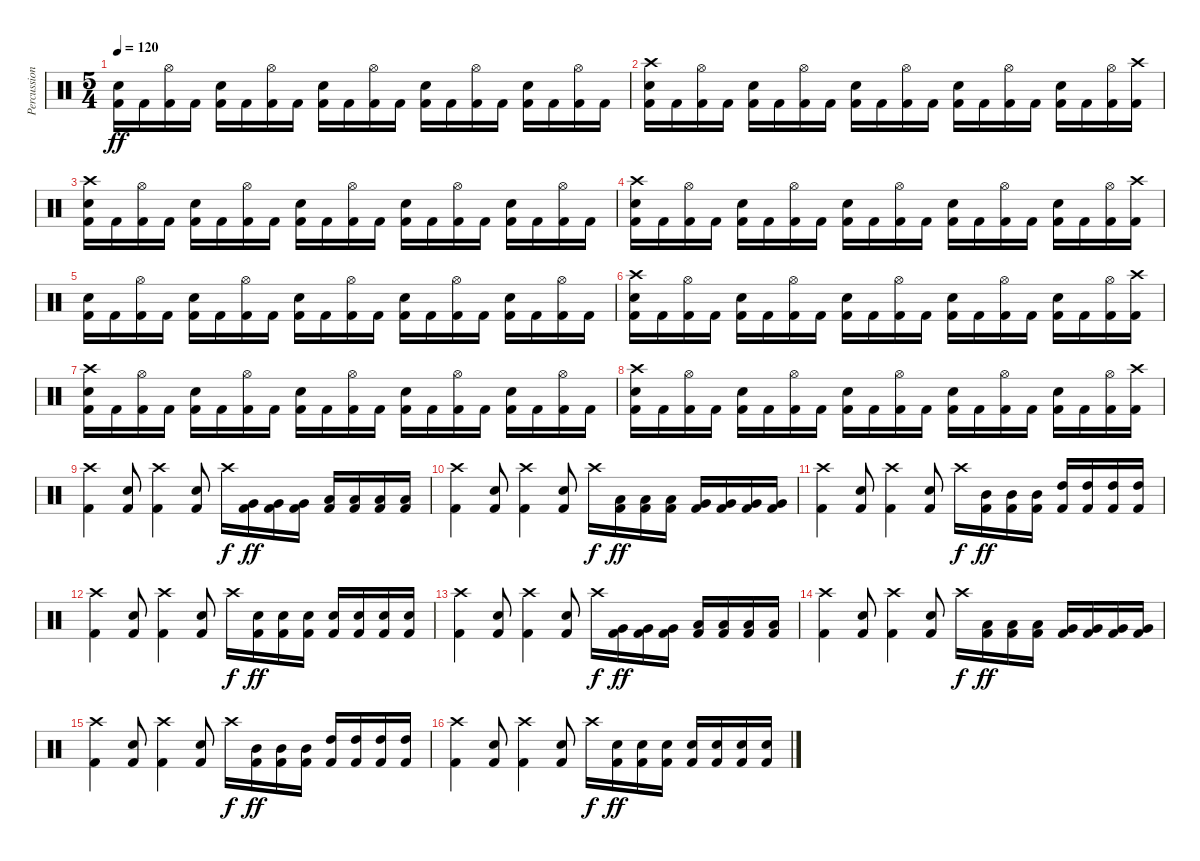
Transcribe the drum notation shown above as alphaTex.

\track ("Percussioni" "Percussion") {instrument percussion}
\staff {score}
\articulation defaults
\ts (5 4)
\tempo 120
\clef neutral
\ks c
("Kick (hit) 2" "Electric Snare (hit)").16{dy ff} "Kick (hit) 2".16 ("Kick (hit) 2" "Hi-Hat (open)").16 "Kick (hit) 2".16 ("Kick (hit) 2" "Electric Snare (hit)").16 "Kick (hit) 2".16 ("Kick (hit) 2" "Hi-Hat (open)").16 "Kick (hit) 2".16 ("Kick (hit) 2" "Electric Snare (hit)").16 "Kick (hit) 2".16 ("Kick (hit) 2" "Hi-Hat (open)").16 "Kick (hit) 2".16 ("Kick (hit) 2" "Electric Snare (hit)").16 "Kick (hit) 2".16 ("Kick (hit) 2" "Hi-Hat (open)").16 "Kick (hit) 2".16 ("Kick (hit) 2" "Electric Snare (hit)").16 "Kick (hit) 2".16 ("Kick (hit) 2" "Hi-Hat (open)").16 "Kick (hit) 2".16 |
("Kick (hit) 2" "Crash high (hit)" "Electric Snare (hit)").16 "Kick (hit) 2".16 ("Kick (hit) 2" "Hi-Hat (open)").16 "Kick (hit) 2".16 ("Kick (hit) 2" "Electric Snare (hit)").16 "Kick (hit) 2".16 ("Kick (hit) 2" "Hi-Hat (open)").16 "Kick (hit) 2".16 ("Kick (hit) 2" "Electric Snare (hit)").16 "Kick (hit) 2".16 ("Kick (hit) 2" "Hi-Hat (open)").16 "Kick (hit) 2".16 ("Kick (hit) 2" "Electric Snare (hit)").16 "Kick (hit) 2".16 ("Kick (hit) 2" "Hi-Hat (open)").16 "Kick (hit) 2".16 ("Kick (hit) 2" "Electric Snare (hit)").16 "Kick (hit) 2".16 ("Kick (hit) 2" "Hi-Hat (open)").16 ("Kick (hit) 2" "Crash high (hit)").16 |
("Kick (hit) 2" "Crash high (hit)" "Electric Snare (hit)").16 "Kick (hit) 2".16 ("Kick (hit) 2" "Hi-Hat (open)").16 "Kick (hit) 2".16 ("Kick (hit) 2" "Electric Snare (hit)").16 "Kick (hit) 2".16 ("Kick (hit) 2" "Hi-Hat (open)").16 "Kick (hit) 2".16 ("Kick (hit) 2" "Electric Snare (hit)").16 "Kick (hit) 2".16 ("Kick (hit) 2" "Hi-Hat (open)").16 "Kick (hit) 2".16 ("Kick (hit) 2" "Electric Snare (hit)").16 "Kick (hit) 2".16 ("Kick (hit) 2" "Hi-Hat (open)").16 "Kick (hit) 2".16 ("Kick (hit) 2" "Electric Snare (hit)").16 "Kick (hit) 2".16 ("Kick (hit) 2" "Hi-Hat (open)").16 "Kick (hit) 2".16 |
("Kick (hit) 2" "Crash high (hit)" "Electric Snare (hit)").16 "Kick (hit) 2".16 ("Kick (hit) 2" "Hi-Hat (open)").16 "Kick (hit) 2".16 ("Kick (hit) 2" "Electric Snare (hit)").16 "Kick (hit) 2".16 ("Kick (hit) 2" "Hi-Hat (open)").16 "Kick (hit) 2".16 ("Kick (hit) 2" "Electric Snare (hit)").16 "Kick (hit) 2".16 ("Kick (hit) 2" "Hi-Hat (open)").16 "Kick (hit) 2".16 ("Kick (hit) 2" "Electric Snare (hit)").16 "Kick (hit) 2".16 ("Kick (hit) 2" "Hi-Hat (open)").16 "Kick (hit) 2".16 ("Kick (hit) 2" "Electric Snare (hit)").16 "Kick (hit) 2".16 ("Kick (hit) 2" "Hi-Hat (open)").16 ("Kick (hit) 2" "Crash high (hit)").16 |
("Kick (hit) 2" "Electric Snare (hit)").16 "Kick (hit) 2".16 ("Kick (hit) 2" "Hi-Hat (open)").16 "Kick (hit) 2".16 ("Kick (hit) 2" "Electric Snare (hit)").16 "Kick (hit) 2".16 ("Kick (hit) 2" "Hi-Hat (open)").16 "Kick (hit) 2".16 ("Kick (hit) 2" "Electric Snare (hit)").16 "Kick (hit) 2".16 ("Kick (hit) 2" "Hi-Hat (open)").16 "Kick (hit) 2".16 ("Kick (hit) 2" "Electric Snare (hit)").16 "Kick (hit) 2".16 ("Kick (hit) 2" "Hi-Hat (open)").16 "Kick (hit) 2".16 ("Kick (hit) 2" "Electric Snare (hit)").16 "Kick (hit) 2".16 ("Kick (hit) 2" "Hi-Hat (open)").16 "Kick (hit) 2".16 |
("Kick (hit) 2" "Crash high (hit)" "Electric Snare (hit)").16 "Kick (hit) 2".16 ("Kick (hit) 2" "Hi-Hat (open)").16 "Kick (hit) 2".16 ("Kick (hit) 2" "Electric Snare (hit)").16 "Kick (hit) 2".16 ("Kick (hit) 2" "Hi-Hat (open)").16 "Kick (hit) 2".16 ("Kick (hit) 2" "Electric Snare (hit)").16 "Kick (hit) 2".16 ("Kick (hit) 2" "Hi-Hat (open)").16 "Kick (hit) 2".16 ("Kick (hit) 2" "Electric Snare (hit)").16 "Kick (hit) 2".16 ("Kick (hit) 2" "Hi-Hat (open)").16 "Kick (hit) 2".16 ("Kick (hit) 2" "Electric Snare (hit)").16 "Kick (hit) 2".16 ("Kick (hit) 2" "Hi-Hat (open)").16 ("Kick (hit) 2" "Crash high (hit)").16 |
("Kick (hit) 2" "Crash high (hit)" "Electric Snare (hit)").16 "Kick (hit) 2".16 ("Kick (hit) 2" "Hi-Hat (open)").16 "Kick (hit) 2".16 ("Kick (hit) 2" "Electric Snare (hit)").16 "Kick (hit) 2".16 ("Kick (hit) 2" "Hi-Hat (open)").16 "Kick (hit) 2".16 ("Kick (hit) 2" "Electric Snare (hit)").16 "Kick (hit) 2".16 ("Kick (hit) 2" "Hi-Hat (open)").16 "Kick (hit) 2".16 ("Kick (hit) 2" "Electric Snare (hit)").16 "Kick (hit) 2".16 ("Kick (hit) 2" "Hi-Hat (open)").16 "Kick (hit) 2".16 ("Kick (hit) 2" "Electric Snare (hit)").16 "Kick (hit) 2".16 ("Kick (hit) 2" "Hi-Hat (open)").16 "Kick (hit) 2".16 |
("Kick (hit) 2" "Crash high (hit)" "Electric Snare (hit)").16 "Kick (hit) 2".16 ("Kick (hit) 2" "Hi-Hat (open)").16 "Kick (hit) 2".16 ("Kick (hit) 2" "Electric Snare (hit)").16 "Kick (hit) 2".16 ("Kick (hit) 2" "Hi-Hat (open)").16 "Kick (hit) 2".16 ("Kick (hit) 2" "Electric Snare (hit)").16 "Kick (hit) 2".16 ("Kick (hit) 2" "Hi-Hat (open)").16 "Kick (hit) 2".16 ("Kick (hit) 2" "Electric Snare (hit)").16 "Kick (hit) 2".16 ("Kick (hit) 2" "Hi-Hat (open)").16 "Kick (hit) 2".16 ("Kick (hit) 2" "Electric Snare (hit)").16 "Kick (hit) 2".16 ("Kick (hit) 2" "Hi-Hat (open)").16 ("Kick (hit) 2" "Crash high (hit)").16 |
("Kick (hit) 2" "Crash high (hit)").4 ("Kick (hit) 2" "Electric Snare (hit)").8 ("Kick (hit) 2" "Crash high (hit)").4 ("Kick (hit) 2" "Electric Snare (hit)").8 "Crash high (hit)".16{dy f} ("Kick (hit) 2" "Very Low Tom (hit)").16{dy ff} ("Kick (hit) 2" "Very Low Tom (hit)").16 ("Kick (hit) 2" "Very Low Tom (hit)").16 ("Kick (hit) 2" "Low Tom (hit)").16 ("Kick (hit) 2" "Low Tom (hit)").16 ("Kick (hit) 2" "Low Tom (hit)").16 ("Kick (hit) 2" "Low Tom (hit)").16 |
("Kick (hit) 2" "Crash high (hit)").4 ("Kick (hit) 2" "Electric Snare (hit)").8 ("Kick (hit) 2" "Crash high (hit)").4 ("Kick (hit) 2" "Electric Snare (hit)").8 "Crash high (hit)".16{dy f} ("Kick (hit) 2" "Low Floor Tom (hit)").16{dy ff} ("Kick (hit) 2" "Low Floor Tom (hit)").16 ("Kick (hit) 2" "Low Floor Tom (hit)").16 ("Kick (hit) 2" "Very Low Tom (hit)").16 ("Kick (hit) 2" "Very Low Tom (hit)").16 ("Kick (hit) 2" "Very Low Tom (hit)").16 ("Kick (hit) 2" "Very Low Tom (hit)").16 |
("Kick (hit) 2" "Crash high (hit)").4 ("Kick (hit) 2" "Electric Snare (hit)").8 ("Kick (hit) 2" "Crash high (hit)").4 ("Kick (hit) 2" "Electric Snare (hit)").8 "Crash high (hit)".16{dy f} ("Kick (hit) 2" "Mid Tom (hit)").16{dy ff} ("Kick (hit) 2" "Mid Tom (hit)").16 ("Kick (hit) 2" "Mid Tom (hit)").16 ("Kick (hit) 2" "High Tom (hit)").16 ("Kick (hit) 2" "High Tom (hit)").16 ("Kick (hit) 2" "High Tom (hit)").16 ("Kick (hit) 2" "High Tom (hit)").16 |
("Kick (hit) 2" "Crash high (hit)").4 ("Kick (hit) 2" "Electric Snare (hit)").8 ("Kick (hit) 2" "Crash high (hit)").4 ("Kick (hit) 2" "Electric Snare (hit)").8 "Crash high (hit)".16{dy f} ("Kick (hit) 2" "Electric Snare (hit)").16{dy ff} ("Kick (hit) 2" "Electric Snare (hit)").16 ("Kick (hit) 2" "Electric Snare (hit)").16 ("Kick (hit) 2" "Electric Snare (hit)").16 ("Kick (hit) 2" "Electric Snare (hit)").16 ("Kick (hit) 2" "Electric Snare (hit)").16 ("Kick (hit) 2" "Electric Snare (hit)").16 |
("Kick (hit) 2" "Crash high (hit)").4 ("Kick (hit) 2" "Electric Snare (hit)").8 ("Kick (hit) 2" "Crash high (hit)").4 ("Kick (hit) 2" "Electric Snare (hit)").8 "Crash high (hit)".16{dy f} ("Kick (hit) 2" "Very Low Tom (hit)").16{dy ff} ("Kick (hit) 2" "Very Low Tom (hit)").16 ("Kick (hit) 2" "Very Low Tom (hit)").16 ("Kick (hit) 2" "Low Tom (hit)").16 ("Kick (hit) 2" "Low Tom (hit)").16 ("Kick (hit) 2" "Low Tom (hit)").16 ("Kick (hit) 2" "Low Tom (hit)").16 |
("Kick (hit) 2" "Crash high (hit)").4 ("Kick (hit) 2" "Electric Snare (hit)").8 ("Kick (hit) 2" "Crash high (hit)").4 ("Kick (hit) 2" "Electric Snare (hit)").8 "Crash high (hit)".16{dy f} ("Kick (hit) 2" "Low Floor Tom (hit)").16{dy ff} ("Kick (hit) 2" "Low Floor Tom (hit)").16 ("Kick (hit) 2" "Low Floor Tom (hit)").16 ("Kick (hit) 2" "Very Low Tom (hit)").16 ("Kick (hit) 2" "Very Low Tom (hit)").16 ("Kick (hit) 2" "Very Low Tom (hit)").16 ("Kick (hit) 2" "Very Low Tom (hit)").16 |
("Kick (hit) 2" "Crash high (hit)").4 ("Kick (hit) 2" "Electric Snare (hit)").8 ("Kick (hit) 2" "Crash high (hit)").4 ("Kick (hit) 2" "Electric Snare (hit)").8 "Crash high (hit)".16{dy f} ("Kick (hit) 2" "Mid Tom (hit)").16{dy ff} ("Kick (hit) 2" "Mid Tom (hit)").16 ("Kick (hit) 2" "Mid Tom (hit)").16 ("Kick (hit) 2" "High Tom (hit)").16 ("Kick (hit) 2" "High Tom (hit)").16 ("Kick (hit) 2" "High Tom (hit)").16 ("Kick (hit) 2" "High Tom (hit)").16 |
("Kick (hit) 2" "Crash high (hit)").4 ("Kick (hit) 2" "Electric Snare (hit)").8 ("Kick (hit) 2" "Crash high (hit)").4 ("Kick (hit) 2" "Electric Snare (hit)").8 "Crash high (hit)".16{dy f} ("Kick (hit) 2" "Electric Snare (hit)").16{dy ff} ("Kick (hit) 2" "Electric Snare (hit)").16 ("Kick (hit) 2" "Electric Snare (hit)").16 ("Kick (hit) 2" "Electric Snare (hit)").16 ("Kick (hit) 2" "Electric Snare (hit)").16 ("Kick (hit) 2" "Electric Snare (hit)").16 ("Kick (hit) 2" "Electric Snare (hit)").16
